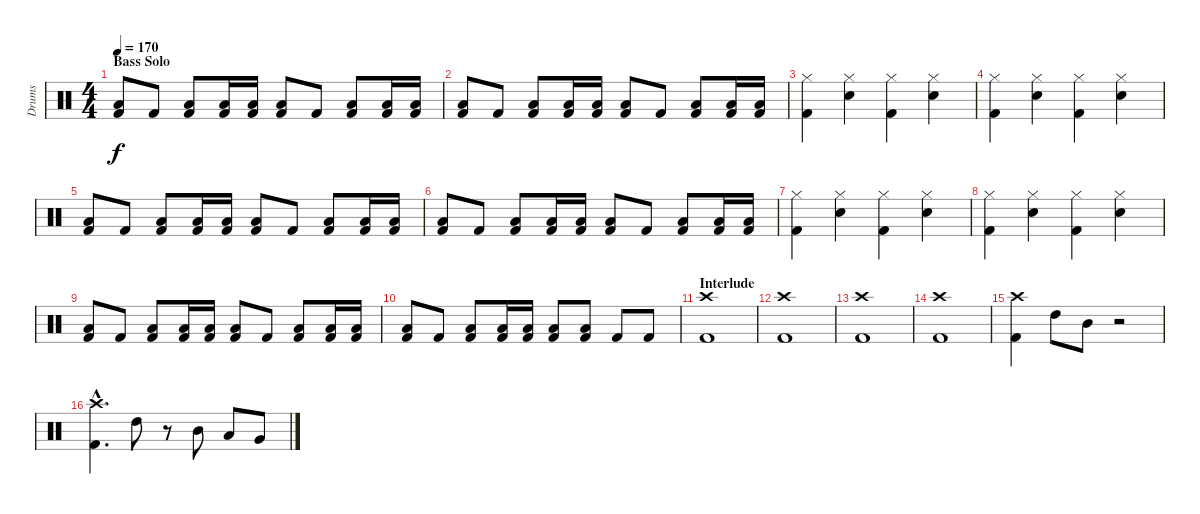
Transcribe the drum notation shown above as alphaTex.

\track ("Drums" "Drums") {instrument percussion}
\staff {score}
\articulation defaults
\ts (4 4)
\section ("" "Bass Solo")
\tempo 170
\clef neutral
\ks c
("Low Tom (hit)" "Kick (hit) 2").8{dy f} "Kick (hit) 2".8 ("Low Tom (hit)" "Kick (hit) 2").8 ("Low Tom (hit)" "Kick (hit) 2").16 ("Low Tom (hit)" "Kick (hit) 2").16 ("Low Tom (hit)" "Kick (hit) 2").8 "Kick (hit) 2".8 ("Low Tom (hit)" "Kick (hit) 2").8 ("Low Tom (hit)" "Kick (hit) 2").16 ("Low Tom (hit)" "Kick (hit) 2").16 |
("Low Tom (hit)" "Kick (hit) 2").8 "Kick (hit) 2".8 ("Low Tom (hit)" "Kick (hit) 2").8 ("Low Tom (hit)" "Kick (hit) 2").16 ("Low Tom (hit)" "Kick (hit) 2").16 ("Low Tom (hit)" "Kick (hit) 2").8 "Kick (hit) 2".8 ("Low Tom (hit)" "Kick (hit) 2").8 ("Low Tom (hit)" "Kick (hit) 2").16 ("Low Tom (hit)" "Kick (hit) 2").16 |
("Hi-Hat (closed)" "Kick (hit) 2").4 ("Hi-Hat (closed)" "Electric Snare (hit)").4 ("Hi-Hat (closed)" "Kick (hit) 2").4 ("Hi-Hat (closed)" "Electric Snare (hit)").4 |
("Hi-Hat (closed)" "Kick (hit) 2").4 ("Hi-Hat (closed)" "Electric Snare (hit)").4 ("Hi-Hat (closed)" "Kick (hit) 2").4 ("Hi-Hat (closed)" "Electric Snare (hit)").4 |
("Low Tom (hit)" "Kick (hit) 2").8 "Kick (hit) 2".8 ("Low Tom (hit)" "Kick (hit) 2").8 ("Low Tom (hit)" "Kick (hit) 2").16 ("Low Tom (hit)" "Kick (hit) 2").16 ("Low Tom (hit)" "Kick (hit) 2").8 "Kick (hit) 2".8 ("Low Tom (hit)" "Kick (hit) 2").8 ("Low Tom (hit)" "Kick (hit) 2").16 ("Low Tom (hit)" "Kick (hit) 2").16 |
("Low Tom (hit)" "Kick (hit) 2").8 "Kick (hit) 2".8 ("Low Tom (hit)" "Kick (hit) 2").8 ("Low Tom (hit)" "Kick (hit) 2").16 ("Low Tom (hit)" "Kick (hit) 2").16 ("Low Tom (hit)" "Kick (hit) 2").8 "Kick (hit) 2".8 ("Low Tom (hit)" "Kick (hit) 2").8 ("Low Tom (hit)" "Kick (hit) 2").16 ("Low Tom (hit)" "Kick (hit) 2").16 |
("Hi-Hat (closed)" "Kick (hit) 2").4 ("Hi-Hat (closed)" "Electric Snare (hit)").4 ("Hi-Hat (closed)" "Kick (hit) 2").4 ("Hi-Hat (closed)" "Electric Snare (hit)").4 |
("Hi-Hat (closed)" "Kick (hit) 2").4 ("Hi-Hat (closed)" "Electric Snare (hit)").4 ("Hi-Hat (closed)" "Kick (hit) 2").4 ("Hi-Hat (closed)" "Electric Snare (hit)").4 |
("Low Tom (hit)" "Kick (hit) 2").8 "Kick (hit) 2".8 ("Low Tom (hit)" "Kick (hit) 2").8 ("Low Tom (hit)" "Kick (hit) 2").16 ("Low Tom (hit)" "Kick (hit) 2").16 ("Low Tom (hit)" "Kick (hit) 2").8 "Kick (hit) 2".8 ("Low Tom (hit)" "Kick (hit) 2").8 ("Low Tom (hit)" "Kick (hit) 2").16 ("Low Tom (hit)" "Kick (hit) 2").16 |
("Low Tom (hit)" "Kick (hit) 2").8 "Kick (hit) 2".8 ("Low Tom (hit)" "Kick (hit) 2").8 ("Low Tom (hit)" "Kick (hit) 2").16 ("Low Tom (hit)" "Kick (hit) 2").16 ("Low Tom (hit)" "Kick (hit) 2").8 ("Low Tom (hit)" "Kick (hit) 2").8 "Kick (hit) 2".8 "Kick (hit) 2".8 |
\section ("" "Interlude")
("Crash high (hit)" "Kick (hit) 2").1 |
("Crash high (hit)" "Kick (hit) 2").1 |
("Crash high (hit)" "Kick (hit) 2").1 |
("Crash high (hit)" "Kick (hit) 2").1 |
("Crash high (hit)" "Kick (hit) 2").4 "High Tom (hit)".8 "Mid Tom (hit)".8 r.2 |
("Crash high (hit)"{hac} "Kick (hit) 2"{hac}).4{d} "High Tom (hit)".8 r.8 "Mid Tom (hit)".8 "Low Tom (hit)".8 "Very Low Tom (hit)".8
